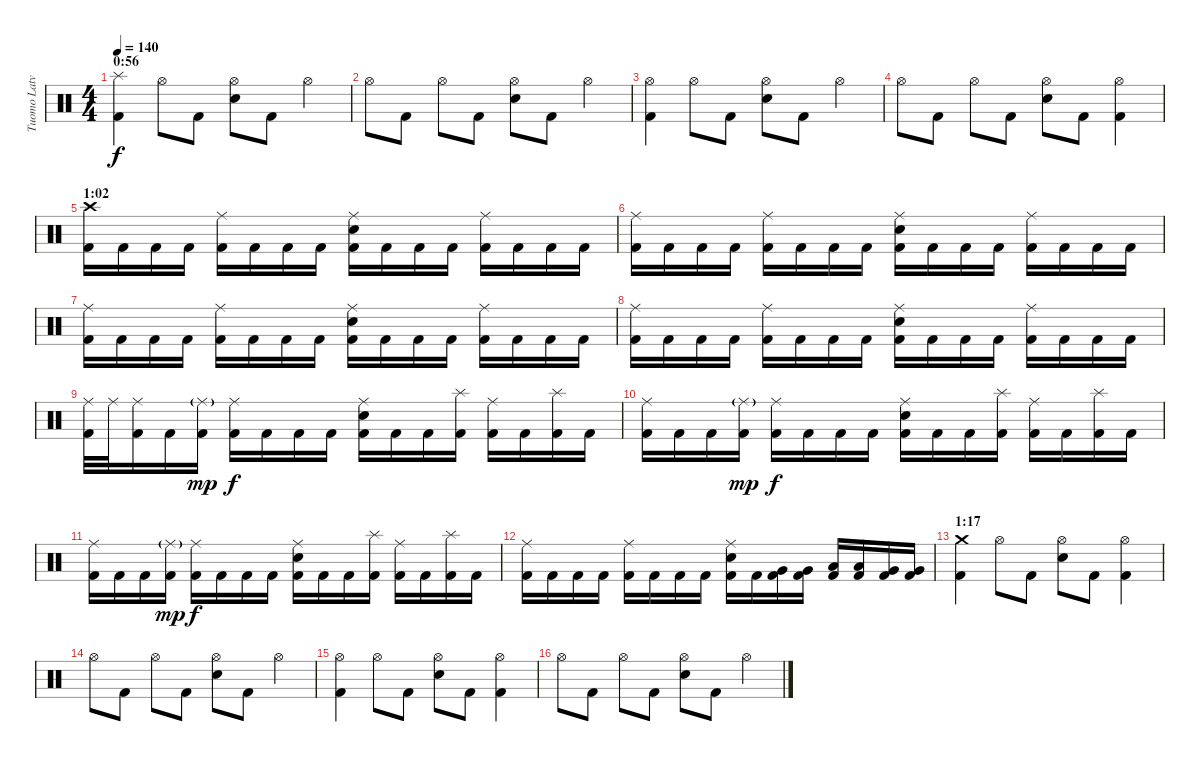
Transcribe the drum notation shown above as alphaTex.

\track ("Tuomo Latvala" "Tuomo Latv") {instrument percussion}
\staff {score}
\articulation defaults
\ts (4 4)
\section ("" "0:56")
\tempo 140
\clef neutral
\ks c
("Splash (hit)" "Kick (hit) 2").4{dy f} "Hi-Hat (open)".8 "Kick (hit) 2".8 ("Hi-Hat (open)" "Electric Snare (hit)").8 "Kick (hit) 2".8 "Hi-Hat (open)".4 |
"Hi-Hat (open)".8 "Kick (hit) 2".8 "Hi-Hat (open)".8 "Kick (hit) 2".8 ("Hi-Hat (open)" "Electric Snare (hit)").8 "Kick (hit) 2".8 "Hi-Hat (open)".4 |
("Hi-Hat (open)" "Kick (hit) 2").4 "Hi-Hat (open)".8 "Kick (hit) 2".8 ("Hi-Hat (open)" "Electric Snare (hit)").8 "Kick (hit) 2".8 "Hi-Hat (open)".4 |
"Hi-Hat (open)".8 "Kick (hit) 2".8 "Hi-Hat (open)".8 "Kick (hit) 2".8 ("Hi-Hat (open)" "Electric Snare (hit)").8 "Kick (hit) 2".8 ("Hi-Hat (open)" "Kick (hit) 2").4 |
\section ("" "1:02")
("Crash high (hit)" "Kick (hit) 2").16 "Kick (hit) 2".16 "Kick (hit) 2".16 "Kick (hit) 2".16 ("Ride (middle)" "Kick (hit) 2").16 "Kick (hit) 2".16 "Kick (hit) 2".16 "Kick (hit) 2".16 ("Ride (middle)" "Electric Snare (hit)" "Kick (hit) 2").16 "Kick (hit) 2".16 "Kick (hit) 2".16 "Kick (hit) 2".16 ("Ride (middle)" "Kick (hit) 2").16 "Kick (hit) 2".16 "Kick (hit) 2".16 "Kick (hit) 2".16 |
("Ride (middle)" "Kick (hit) 2").16 "Kick (hit) 2".16 "Kick (hit) 2".16 "Kick (hit) 2".16 ("Ride (middle)" "Kick (hit) 2").16 "Kick (hit) 2".16 "Kick (hit) 2".16 "Kick (hit) 2".16 ("Ride (middle)" "Electric Snare (hit)" "Kick (hit) 2").16 "Kick (hit) 2".16 "Kick (hit) 2".16 "Kick (hit) 2".16 ("Ride (middle)" "Kick (hit) 2").16 "Kick (hit) 2".16 "Kick (hit) 2".16 "Kick (hit) 2".16 |
("Ride (middle)" "Kick (hit) 2").16 "Kick (hit) 2".16 "Kick (hit) 2".16 "Kick (hit) 2".16 ("Ride (middle)" "Kick (hit) 2").16 "Kick (hit) 2".16 "Kick (hit) 2".16 "Kick (hit) 2".16 ("Ride (middle)" "Electric Snare (hit)" "Kick (hit) 2").16 "Kick (hit) 2".16 "Kick (hit) 2".16 "Kick (hit) 2".16 ("Ride (middle)" "Kick (hit) 2").16 "Kick (hit) 2".16 "Kick (hit) 2".16 "Kick (hit) 2".16 |
("Ride (middle)" "Kick (hit) 2").16 "Kick (hit) 2".16 "Kick (hit) 2".16 "Kick (hit) 2".16 ("Ride (middle)" "Kick (hit) 2").16 "Kick (hit) 2".16 "Kick (hit) 2".16 "Kick (hit) 2".16 ("Ride (middle)" "Electric Snare (hit)" "Kick (hit) 2").16 "Kick (hit) 2".16 "Kick (hit) 2".16 "Kick (hit) 2".16 ("Ride (middle)" "Kick (hit) 2").16 "Kick (hit) 2".16 "Kick (hit) 2".16 "Kick (hit) 2".16 |
("Ride (middle)" "Kick (hit) 2").32 "Ride (middle)".32 ("Ride (middle)" "Kick (hit) 2").16 "Kick (hit) 2".16 ("Ride (middle)"{g} "Kick (hit) 2").16{dy mp} ("Ride (middle)" "Kick (hit) 2").16{dy f} "Kick (hit) 2".16 "Kick (hit) 2".16 "Kick (hit) 2".16 ("Ride (middle)" "Electric Snare (hit)" "Kick (hit) 2").16 "Kick (hit) 2".16 "Kick (hit) 2".16 ("Splash (hit)" "Kick (hit) 2").16 ("Ride (middle)" "Kick (hit) 2").16 "Kick (hit) 2".16 ("Splash (hit)" "Kick (hit) 2").16 "Kick (hit) 2".16 |
("Ride (middle)" "Kick (hit) 2").16 "Kick (hit) 2".16 "Kick (hit) 2".16 ("Ride (middle)"{g} "Kick (hit) 2").16{dy mp} ("Ride (middle)" "Kick (hit) 2").16{dy f} "Kick (hit) 2".16 "Kick (hit) 2".16 "Kick (hit) 2".16 ("Ride (middle)" "Electric Snare (hit)" "Kick (hit) 2").16 "Kick (hit) 2".16 "Kick (hit) 2".16 ("Splash (hit)" "Kick (hit) 2").16 ("Ride (middle)" "Kick (hit) 2").16 "Kick (hit) 2".16 ("Splash (hit)" "Kick (hit) 2").16 "Kick (hit) 2".16 |
("Ride (middle)" "Kick (hit) 2").16 "Kick (hit) 2".16 "Kick (hit) 2".16 ("Ride (middle)"{g} "Kick (hit) 2").16{dy mp} ("Ride (middle)" "Kick (hit) 2").16{dy f} "Kick (hit) 2".16 "Kick (hit) 2".16 "Kick (hit) 2".16 ("Ride (middle)" "Electric Snare (hit)" "Kick (hit) 2").16 "Kick (hit) 2".16 "Kick (hit) 2".16 ("Splash (hit)" "Kick (hit) 2").16 ("Ride (middle)" "Kick (hit) 2").16 "Kick (hit) 2".16 ("Splash (hit)" "Kick (hit) 2").16 "Kick (hit) 2".16 |
("Ride (middle)" "Kick (hit) 2").16 "Kick (hit) 2".16 "Kick (hit) 2".16 "Kick (hit) 2".16 ("Ride (middle)" "Kick (hit) 2").16 "Kick (hit) 2".16 "Kick (hit) 2".16 "Kick (hit) 2".16 ("Ride (middle)" "Electric Snare (hit)" "Kick (hit) 2").16 "Kick (hit) 2".16 ("Very Low Tom (hit)" "Kick (hit) 2").16 ("Very Low Tom (hit)" "Kick (hit) 2").16 ("Low Floor Tom (hit)" "Kick (hit) 2").16 ("Low Floor Tom (hit)" "Kick (hit) 2").16 ("Very Low Tom (hit)" "Kick (hit) 2").16 ("Very Low Tom (hit)" "Kick (hit) 2").16 |
\section ("" "1:17")
("Crash medium (hit)" "Kick (hit) 2").4 "Hi-Hat (open)".8 "Kick (hit) 2".8 ("Hi-Hat (open)" "Electric Snare (hit)").8 "Kick (hit) 2".8 ("Hi-Hat (open)" "Kick (hit) 2").4 |
"Hi-Hat (open)".8 "Kick (hit) 2".8 "Hi-Hat (open)".8 "Kick (hit) 2".8 ("Hi-Hat (open)" "Electric Snare (hit)").8 "Kick (hit) 2".8 "Hi-Hat (open)".4 |
("Hi-Hat (open)" "Kick (hit) 2").4 "Hi-Hat (open)".8 "Kick (hit) 2".8 ("Hi-Hat (open)" "Electric Snare (hit)").8 "Kick (hit) 2".8 ("Hi-Hat (open)" "Kick (hit) 2").4 |
"Hi-Hat (open)".8 "Kick (hit) 2".8 "Hi-Hat (open)".8 "Kick (hit) 2".8 ("Hi-Hat (open)" "Electric Snare (hit)").8 "Kick (hit) 2".8 "Hi-Hat (open)".4
